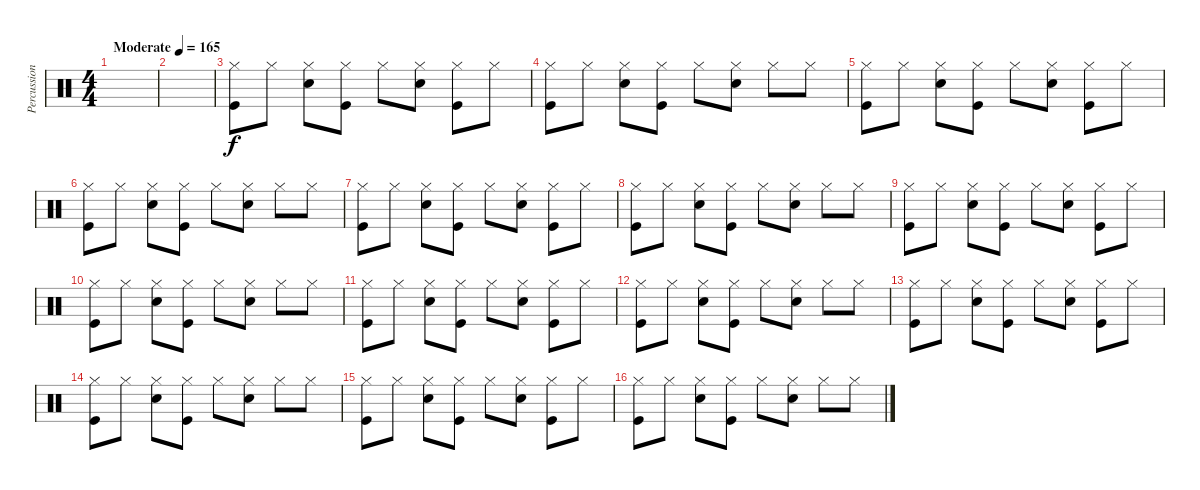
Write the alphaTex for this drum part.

\track ("Percussion" "Percussion") {instrument percussion}
\staff {score}
\articulation defaults
\ts (4 4)
\tempo (165 "Moderate")
\clef neutral
\ks c
|
|
("Hi-Hat (closed)" "Kick (hit)").8 "Hi-Hat (closed)".8 ("Hi-Hat (closed)" "Snare (hit) 2").8 ("Hi-Hat (closed)" "Kick (hit)").8 "Hi-Hat (closed)".8 ("Hi-Hat (closed)" "Snare (hit) 2").8 ("Hi-Hat (closed)" "Kick (hit)").8 "Hi-Hat (closed)".8 |
("Hi-Hat (closed)" "Kick (hit)").8 "Hi-Hat (closed)".8 ("Hi-Hat (closed)" "Snare (hit) 2").8 ("Hi-Hat (closed)" "Kick (hit)").8 "Hi-Hat (closed)".8 ("Hi-Hat (closed)" "Snare (hit) 2").8 "Hi-Hat (closed)".8 "Hi-Hat (closed)".8 |
("Hi-Hat (closed)" "Kick (hit)").8 "Hi-Hat (closed)".8 ("Hi-Hat (closed)" "Snare (hit) 2").8 ("Hi-Hat (closed)" "Kick (hit)").8 "Hi-Hat (closed)".8 ("Hi-Hat (closed)" "Snare (hit) 2").8 ("Hi-Hat (closed)" "Kick (hit)").8 "Hi-Hat (closed)".8 |
("Hi-Hat (closed)" "Kick (hit)").8 "Hi-Hat (closed)".8 ("Hi-Hat (closed)" "Snare (hit) 2").8 ("Hi-Hat (closed)" "Kick (hit)").8 "Hi-Hat (closed)".8 ("Hi-Hat (closed)" "Snare (hit) 2").8 "Hi-Hat (closed)".8 "Hi-Hat (closed)".8 |
("Hi-Hat (closed)" "Kick (hit)").8 "Hi-Hat (closed)".8 ("Hi-Hat (closed)" "Snare (hit) 2").8 ("Hi-Hat (closed)" "Kick (hit)").8 "Hi-Hat (closed)".8 ("Hi-Hat (closed)" "Snare (hit) 2").8 ("Hi-Hat (closed)" "Kick (hit)").8 "Hi-Hat (closed)".8 |
("Hi-Hat (closed)" "Kick (hit)").8 "Hi-Hat (closed)".8 ("Hi-Hat (closed)" "Snare (hit) 2").8 ("Hi-Hat (closed)" "Kick (hit)").8 "Hi-Hat (closed)".8 ("Hi-Hat (closed)" "Snare (hit) 2").8 "Hi-Hat (closed)".8 "Hi-Hat (closed)".8 |
("Hi-Hat (closed)" "Kick (hit)").8 "Hi-Hat (closed)".8 ("Hi-Hat (closed)" "Snare (hit) 2").8 ("Hi-Hat (closed)" "Kick (hit)").8 "Hi-Hat (closed)".8 ("Hi-Hat (closed)" "Snare (hit) 2").8 ("Hi-Hat (closed)" "Kick (hit)").8 "Hi-Hat (closed)".8 |
("Hi-Hat (closed)" "Kick (hit)").8 "Hi-Hat (closed)".8 ("Hi-Hat (closed)" "Snare (hit) 2").8 ("Hi-Hat (closed)" "Kick (hit)").8 "Hi-Hat (closed)".8 ("Hi-Hat (closed)" "Snare (hit) 2").8 "Hi-Hat (closed)".8 "Hi-Hat (closed)".8 |
("Hi-Hat (closed)" "Kick (hit)").8 "Hi-Hat (closed)".8 ("Hi-Hat (closed)" "Snare (hit) 2").8 ("Hi-Hat (closed)" "Kick (hit)").8 "Hi-Hat (closed)".8 ("Hi-Hat (closed)" "Snare (hit) 2").8 ("Hi-Hat (closed)" "Kick (hit)").8 "Hi-Hat (closed)".8 |
("Hi-Hat (closed)" "Kick (hit)").8 "Hi-Hat (closed)".8 ("Hi-Hat (closed)" "Snare (hit) 2").8 ("Hi-Hat (closed)" "Kick (hit)").8 "Hi-Hat (closed)".8 ("Hi-Hat (closed)" "Snare (hit) 2").8 "Hi-Hat (closed)".8 "Hi-Hat (closed)".8 |
("Hi-Hat (closed)" "Kick (hit)").8 "Hi-Hat (closed)".8 ("Hi-Hat (closed)" "Snare (hit) 2").8 ("Hi-Hat (closed)" "Kick (hit)").8 "Hi-Hat (closed)".8 ("Hi-Hat (closed)" "Snare (hit) 2").8 ("Hi-Hat (closed)" "Kick (hit)").8 "Hi-Hat (closed)".8 |
("Hi-Hat (closed)" "Kick (hit)").8 "Hi-Hat (closed)".8 ("Hi-Hat (closed)" "Snare (hit) 2").8 ("Hi-Hat (closed)" "Kick (hit)").8 "Hi-Hat (closed)".8 ("Hi-Hat (closed)" "Snare (hit) 2").8 "Hi-Hat (closed)".8 "Hi-Hat (closed)".8 |
("Hi-Hat (closed)" "Kick (hit)").8 "Hi-Hat (closed)".8 ("Hi-Hat (closed)" "Snare (hit) 2").8 ("Hi-Hat (closed)" "Kick (hit)").8 "Hi-Hat (closed)".8 ("Hi-Hat (closed)" "Snare (hit) 2").8 ("Hi-Hat (closed)" "Kick (hit)").8 "Hi-Hat (closed)".8 |
("Hi-Hat (closed)" "Kick (hit)").8 "Hi-Hat (closed)".8 ("Hi-Hat (closed)" "Snare (hit) 2").8 ("Hi-Hat (closed)" "Kick (hit)").8 "Hi-Hat (closed)".8 ("Hi-Hat (closed)" "Snare (hit) 2").8 "Hi-Hat (closed)".8 "Hi-Hat (closed)".8
